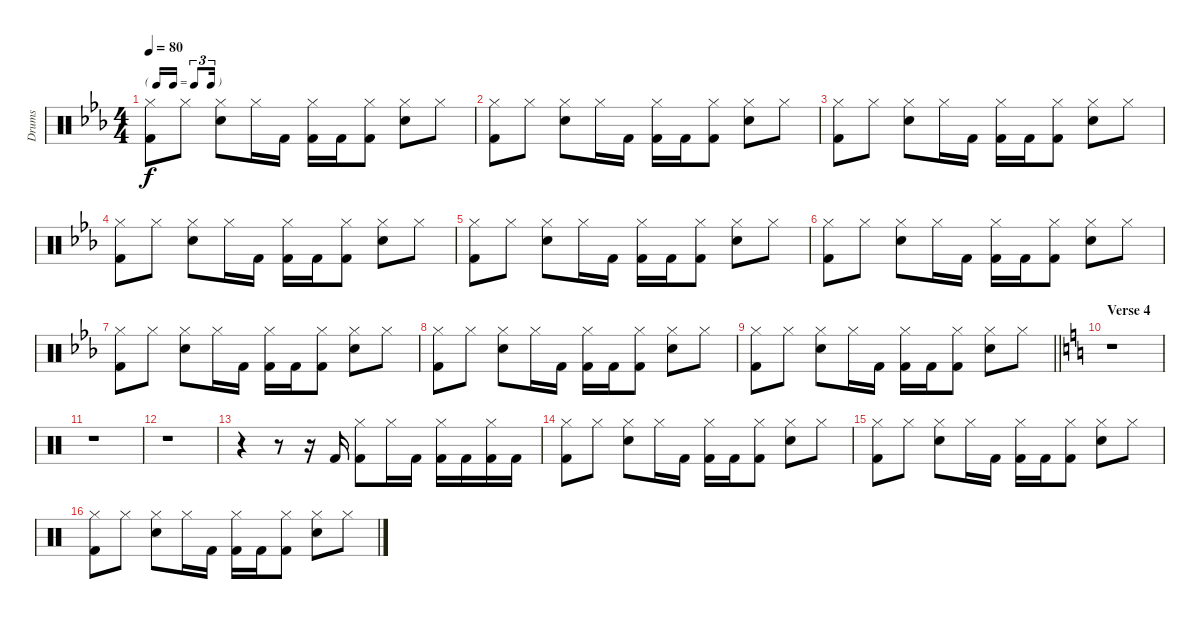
\track ("Drums" "Drums") {instrument percussion}
\staff {score}
\articulation defaults
\ts (4 4)
\tf triplet16th
\tempo 80
\clef neutral
\ks cminor
("Hi-Hat (closed)" "Kick (hit) 2").8{dy f} "Hi-Hat (closed)".8 ("Electric Snare (hit)" "Hi-Hat (closed)").8 "Hi-Hat (closed)".16 "Kick (hit) 2".16 ("Kick (hit) 2" "Hi-Hat (closed)").16 "Kick (hit) 2".16 ("Kick (hit) 2" "Hi-Hat (closed)").8 ("Electric Snare (hit)" "Hi-Hat (closed)").8 "Hi-Hat (closed)".8 |
("Hi-Hat (closed)" "Kick (hit) 2").8 "Hi-Hat (closed)".8 ("Electric Snare (hit)" "Hi-Hat (closed)").8 "Hi-Hat (closed)".16 "Kick (hit) 2".16 ("Kick (hit) 2" "Hi-Hat (closed)").16 "Kick (hit) 2".16 ("Kick (hit) 2" "Hi-Hat (closed)").8 ("Electric Snare (hit)" "Hi-Hat (closed)").8 "Hi-Hat (closed)".8 |
("Hi-Hat (closed)" "Kick (hit) 2").8 "Hi-Hat (closed)".8 ("Electric Snare (hit)" "Hi-Hat (closed)").8 "Hi-Hat (closed)".16 "Kick (hit) 2".16 ("Kick (hit) 2" "Hi-Hat (closed)").16 "Kick (hit) 2".16 ("Kick (hit) 2" "Hi-Hat (closed)").8 ("Electric Snare (hit)" "Hi-Hat (closed)").8 "Hi-Hat (closed)".8 |
("Hi-Hat (closed)" "Kick (hit) 2").8 "Hi-Hat (closed)".8 ("Electric Snare (hit)" "Hi-Hat (closed)").8 "Hi-Hat (closed)".16 "Kick (hit) 2".16 ("Kick (hit) 2" "Hi-Hat (closed)").16 "Kick (hit) 2".16 ("Kick (hit) 2" "Hi-Hat (closed)").8 ("Electric Snare (hit)" "Hi-Hat (closed)").8 "Hi-Hat (closed)".8 |
("Hi-Hat (closed)" "Kick (hit) 2").8 "Hi-Hat (closed)".8 ("Electric Snare (hit)" "Hi-Hat (closed)").8 "Hi-Hat (closed)".16 "Kick (hit) 2".16 ("Kick (hit) 2" "Hi-Hat (closed)").16 "Kick (hit) 2".16 ("Kick (hit) 2" "Hi-Hat (closed)").8 ("Electric Snare (hit)" "Hi-Hat (closed)").8 "Hi-Hat (closed)".8 |
("Hi-Hat (closed)" "Kick (hit) 2").8 "Hi-Hat (closed)".8 ("Electric Snare (hit)" "Hi-Hat (closed)").8 "Hi-Hat (closed)".16 "Kick (hit) 2".16 ("Kick (hit) 2" "Hi-Hat (closed)").16 "Kick (hit) 2".16 ("Kick (hit) 2" "Hi-Hat (closed)").8 ("Electric Snare (hit)" "Hi-Hat (closed)").8 "Hi-Hat (closed)".8 |
("Hi-Hat (closed)" "Kick (hit) 2").8 "Hi-Hat (closed)".8 ("Electric Snare (hit)" "Hi-Hat (closed)").8 "Hi-Hat (closed)".16 "Kick (hit) 2".16 ("Kick (hit) 2" "Hi-Hat (closed)").16 "Kick (hit) 2".16 ("Kick (hit) 2" "Hi-Hat (closed)").8 ("Electric Snare (hit)" "Hi-Hat (closed)").8 "Hi-Hat (closed)".8 |
("Hi-Hat (closed)" "Kick (hit) 2").8 "Hi-Hat (closed)".8 ("Electric Snare (hit)" "Hi-Hat (closed)").8 "Hi-Hat (closed)".16 "Kick (hit) 2".16 ("Kick (hit) 2" "Hi-Hat (closed)").16 "Kick (hit) 2".16 ("Kick (hit) 2" "Hi-Hat (closed)").8 ("Electric Snare (hit)" "Hi-Hat (closed)").8 "Hi-Hat (closed)".8 |
\barLineRight lightlight
("Hi-Hat (closed)" "Kick (hit) 2").8 "Hi-Hat (closed)".8 ("Electric Snare (hit)" "Hi-Hat (closed)").8 "Hi-Hat (closed)".16 "Kick (hit) 2".16 ("Kick (hit) 2" "Hi-Hat (closed)").16 "Kick (hit) 2".16 ("Kick (hit) 2" "Hi-Hat (closed)").8 ("Electric Snare (hit)" "Hi-Hat (closed)").8 "Hi-Hat (closed)".8 |
\section ("" "Verse 4")
\ks c
r.1 |
r.1 |
r.1 |
r.4 r.8 r.16 "Kick (hit) 2".16 ("Kick (hit) 2" "Hi-Hat (closed)").8 "Hi-Hat (closed)".16 "Kick (hit) 2".16 ("Kick (hit) 2" "Hi-Hat (closed)").16 "Kick (hit) 2".16 ("Kick (hit) 2" "Hi-Hat (closed)").16 "Kick (hit) 2".16 |
("Hi-Hat (closed)" "Kick (hit) 2").8 "Hi-Hat (closed)".8 ("Electric Snare (hit)" "Hi-Hat (closed)").8 "Hi-Hat (closed)".16 "Kick (hit) 2".16 ("Kick (hit) 2" "Hi-Hat (closed)").16 "Kick (hit) 2".16 ("Kick (hit) 2" "Hi-Hat (closed)").8 ("Electric Snare (hit)" "Hi-Hat (closed)").8 "Hi-Hat (closed)".8 |
("Hi-Hat (closed)" "Kick (hit) 2").8 "Hi-Hat (closed)".8 ("Electric Snare (hit)" "Hi-Hat (closed)").8 "Hi-Hat (closed)".16 "Kick (hit) 2".16 ("Kick (hit) 2" "Hi-Hat (closed)").16 "Kick (hit) 2".16 ("Kick (hit) 2" "Hi-Hat (closed)").8 ("Electric Snare (hit)" "Hi-Hat (closed)").8 "Hi-Hat (closed)".8 |
("Hi-Hat (closed)" "Kick (hit) 2").8 "Hi-Hat (closed)".8 ("Electric Snare (hit)" "Hi-Hat (closed)").8 "Hi-Hat (closed)".16 "Kick (hit) 2".16 ("Kick (hit) 2" "Hi-Hat (closed)").16 "Kick (hit) 2".16 ("Kick (hit) 2" "Hi-Hat (closed)").8 ("Electric Snare (hit)" "Hi-Hat (closed)").8 "Hi-Hat (closed)".8
